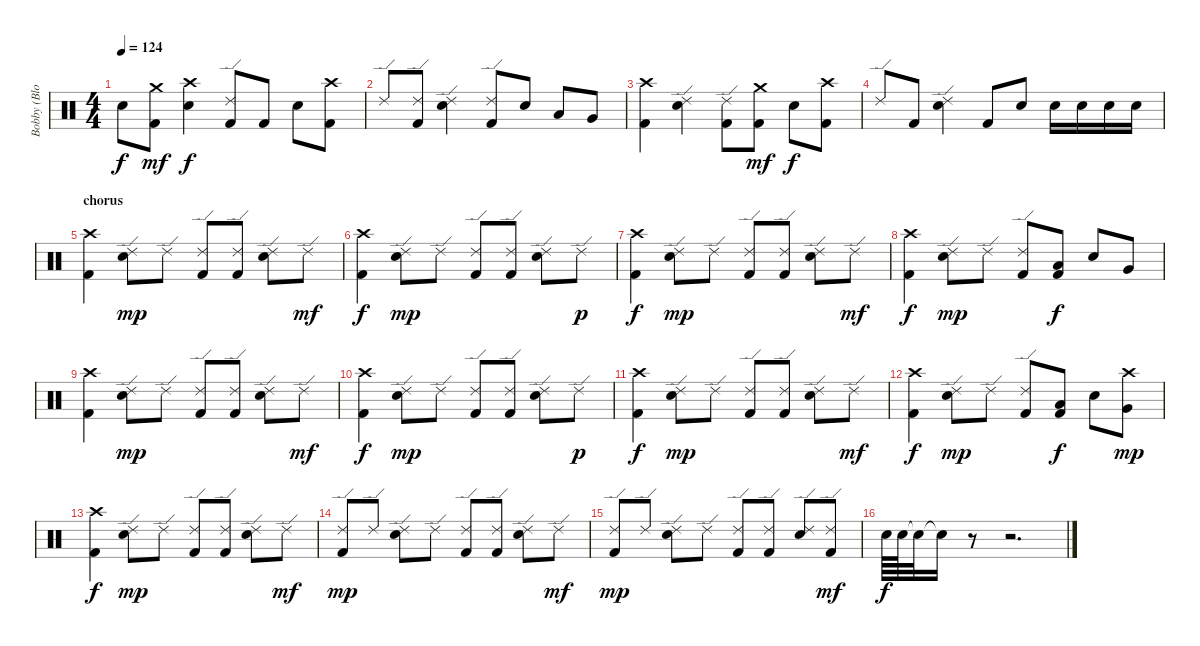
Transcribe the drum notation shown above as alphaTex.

\track ("Bobby (Blotz) Blotzer" "Bobby (Blo") {instrument percussion}
\staff {score}
\articulation defaults
\ts (4 4)
\tempo 124
\clef neutral
\ks c "Snare (hit) 2".8{dy f}
("Kick (hit) 2" "Crash medium (hit)").8{dy mf} ("Crash high (hit)" "Snare (hit) 2").4{dy f} ("Kick (hit) 2" "Ride (edge) 2").8 "Kick (hit) 2".8 "Snare (hit) 2".8 ("Kick (hit) 2" "Crash high (hit)").8 |
"Ride (edge) 2".8 ("Kick (hit) 2" "Ride (edge) 2").8 ("Ride (edge) 2" "Snare (hit) 2").4 ("Kick (hit) 2" "Ride (edge) 2").8 "Snare (hit) 2".8 "Low Tom (hit)".8 "Very Low Tom (hit)".8 |
("Kick (hit) 2" "Crash high (hit)").4 ("Ride (edge) 2" "Snare (hit) 2").4 ("Kick (hit) 2" "Ride (edge) 2").8 ("Kick (hit) 2" "Crash medium (hit)").8{dy mf} "Snare (hit) 2".8{dy f} ("Kick (hit) 2" "Crash high (hit)").8 |
"Ride (edge) 2".8 "Kick (hit) 2".8 ("Ride (edge) 2" "Snare (hit) 2").4 "Kick (hit) 2".8 "Snare (hit) 2".8 "Snare (hit) 2".16 "Snare (hit) 2".16 "Snare (hit) 2".16 "Snare (hit) 2".16 |
\section ("" "chorus")
("Kick (hit) 2" "Crash high (hit)").4 ("Ride (edge) 2" "Snare (hit) 2").8{dy mp} "Ride (edge) 2".8 ("Kick (hit) 2" "Ride (edge) 2").8 ("Kick (hit) 2" "Ride (edge) 2").8 ("Ride (edge) 2" "Snare (hit) 2").8 "Ride (edge) 2".8{dy mf} |
("Kick (hit) 2" "Crash high (hit)").4{dy f} ("Ride (edge) 2" "Snare (hit) 2").8{dy mp} "Ride (edge) 2".8 ("Kick (hit) 2" "Ride (edge) 2").8 ("Kick (hit) 2" "Ride (edge) 2").8 ("Ride (edge) 2" "Snare (hit) 2").8 "Ride (edge) 2".8{dy p} |
("Kick (hit) 2" "Crash high (hit)").4{dy f} ("Ride (edge) 2" "Snare (hit) 2").8{dy mp} "Ride (edge) 2".8 ("Kick (hit) 2" "Ride (edge) 2").8 ("Kick (hit) 2" "Ride (edge) 2").8 ("Ride (edge) 2" "Snare (hit) 2").8 "Ride (edge) 2".8{dy mf} |
("Kick (hit) 2" "Crash high (hit)").4{dy f} ("Ride (edge) 2" "Snare (hit) 2").8{dy mp} "Ride (edge) 2".8 ("Kick (hit) 2" "Ride (edge) 2").8 ("Kick (hit) 2" "Low Tom (hit)").8{dy f} "Snare (hit) 2".8 "Very Low Tom (hit)".8 |
("Kick (hit) 2" "Crash high (hit)").4 ("Ride (edge) 2" "Snare (hit) 2").8{dy mp} "Ride (edge) 2".8 ("Kick (hit) 2" "Ride (edge) 2").8 ("Kick (hit) 2" "Ride (edge) 2").8 ("Ride (edge) 2" "Snare (hit) 2").8 "Ride (edge) 2".8{dy mf} |
("Kick (hit) 2" "Crash high (hit)").4{dy f} ("Ride (edge) 2" "Snare (hit) 2").8{dy mp} "Ride (edge) 2".8 ("Kick (hit) 2" "Ride (edge) 2").8 ("Kick (hit) 2" "Ride (edge) 2").8 ("Ride (edge) 2" "Snare (hit) 2").8 "Ride (edge) 2".8{dy p} |
("Kick (hit) 2" "Crash high (hit)").4{dy f} ("Ride (edge) 2" "Snare (hit) 2").8{dy mp} "Ride (edge) 2".8 ("Kick (hit) 2" "Ride (edge) 2").8 ("Kick (hit) 2" "Ride (edge) 2").8 ("Ride (edge) 2" "Snare (hit) 2").8 "Ride (edge) 2".8{dy mf} |
("Kick (hit) 2" "Crash high (hit)").4{dy f} ("Ride (edge) 2" "Snare (hit) 2").8{dy mp} "Ride (edge) 2".8 ("Kick (hit) 2" "Ride (edge) 2").8 ("Kick (hit) 2" "Low Tom (hit)").8{dy f} "Snare (hit) 2".8 ("Crash high (hit)" "Very Low Tom (hit)").8{dy mp} |
("Kick (hit) 2" "Crash high (hit)").4{dy f} ("Ride (edge) 2" "Snare (hit) 2").8{dy mp} "Ride (edge) 2".8 ("Kick (hit) 2" "Ride (edge) 2").8 ("Kick (hit) 2" "Ride (edge) 2").8 ("Ride (edge) 2" "Snare (hit) 2").8 "Ride (edge) 2".8{dy mf} |
("Kick (hit) 2" "Ride (edge) 2").8{dy mp} "Ride (edge) 2".8 ("Ride (edge) 2" "Snare (hit) 2").8 "Ride (edge) 2".8 ("Kick (hit) 2" "Ride (edge) 2").8 ("Kick (hit) 2" "Ride (edge) 2").8 ("Ride (edge) 2" "Snare (hit) 2").8 "Ride (edge) 2".8{dy mf} |
("Kick (hit) 2" "Ride (edge) 2").8{dy mp} "Ride (edge) 2".8 ("Ride (edge) 2" "Snare (hit) 2").8 "Ride (edge) 2".8 ("Kick (hit) 2" "Ride (edge) 2").8 ("Kick (hit) 2" "Ride (edge) 2").8 ("Ride (edge) 2" "Snare (hit) 2").8 ("Kick (hit) 2" "Ride (edge) 2").8{dy mf} |
"Snare (hit) 2".64{dy f} "Snare (hit) 2".64 "Snare (hit)"{t}.32 "Snare (hit)"{t}.16 r.8 r.2{d}
